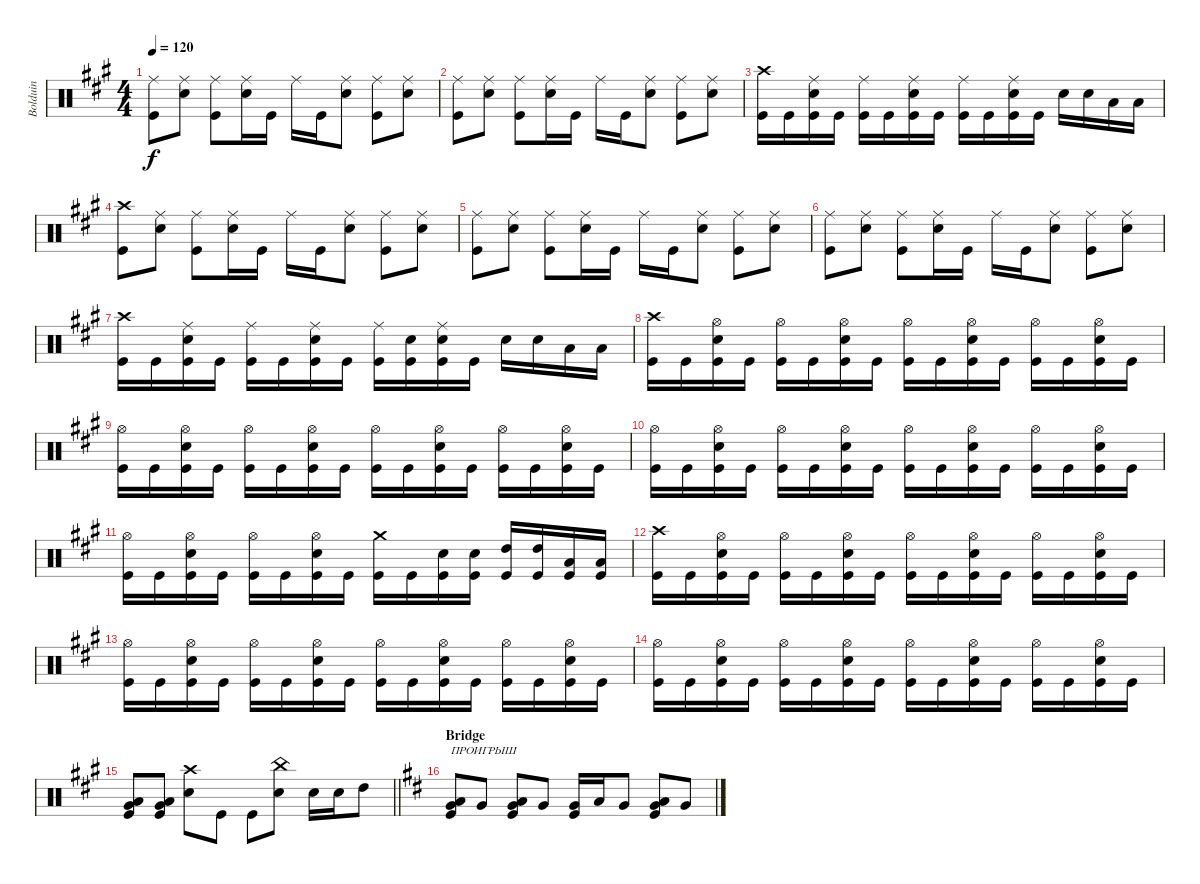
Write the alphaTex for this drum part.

\track ("Bolduin" "Bolduin") {instrument percussion}
\staff {score}
\articulation defaults
\ts (4 4)
\tempo 120
\clef neutral
\ks f#minor
("Kick (hit)" "Ride (middle)").8{dy f} ("Snare (hit) 2" "Ride (middle)").8 ("Kick (hit)" "Ride (middle)").8 ("Snare (hit) 2" "Ride (middle)").16 "Kick (hit)".16 "Ride (middle)".16 "Kick (hit)".16 ("Snare (hit) 2" "Ride (middle)").8 ("Kick (hit)" "Ride (middle)").8 ("Snare (hit) 2" "Ride (middle)").8 |
("Kick (hit)" "Ride (middle)").8 ("Snare (hit) 2" "Ride (middle)").8 ("Kick (hit)" "Ride (middle)").8 ("Snare (hit) 2" "Ride (middle)").16 "Kick (hit)".16 "Ride (middle)".16 "Kick (hit)".16 ("Snare (hit) 2" "Ride (middle)").8 ("Kick (hit)" "Ride (middle)").8 ("Snare (hit) 2" "Ride (middle)").8 |
("Kick (hit)" "Crash high (hit)").16 "Kick (hit)".16 ("Kick (hit)" "Ride (middle)" "Snare (hit) 2").16 "Kick (hit)".16 ("Kick (hit)" "Ride (middle)").16 "Kick (hit)".16 ("Kick (hit)" "Ride (middle)" "Snare (hit) 2").16 "Kick (hit)".16 ("Kick (hit)" "Ride (middle)").16 "Kick (hit)".16 ("Kick (hit)" "Ride (middle)" "Snare (hit) 2").16 "Kick (hit)".16 "Snare (hit) 2".16 "Snare (hit) 2".16 "Low Tom (hit)".16 "Low Tom (hit)".16 |
("Kick (hit)" "Crash high (hit)").8 ("Snare (hit) 2" "Ride (middle)").8 ("Kick (hit)" "Ride (middle)").8 ("Snare (hit) 2" "Ride (middle)").16 "Kick (hit)".16 "Ride (middle)".16 "Kick (hit)".16 ("Snare (hit) 2" "Ride (middle)").8 ("Kick (hit)" "Ride (middle)").8 ("Snare (hit) 2" "Ride (middle)").8 |
("Kick (hit)" "Ride (middle)").8 ("Snare (hit) 2" "Ride (middle)").8 ("Kick (hit)" "Ride (middle)").8 ("Snare (hit) 2" "Ride (middle)").16 "Kick (hit)".16 "Ride (middle)".16 "Kick (hit)".16 ("Snare (hit) 2" "Ride (middle)").8 ("Kick (hit)" "Ride (middle)").8 ("Snare (hit) 2" "Ride (middle)").8 |
("Kick (hit)" "Ride (middle)").8 ("Snare (hit) 2" "Ride (middle)").8 ("Kick (hit)" "Ride (middle)").8 ("Snare (hit) 2" "Ride (middle)").16 "Kick (hit)".16 "Ride (middle)".16 "Kick (hit)".16 ("Ride (middle)" "Snare (hit) 2").8 ("Kick (hit)" "Ride (middle)").8 ("Snare (hit) 2" "Ride (middle)").8 |
("Kick (hit)" "Crash high (hit)").16 "Kick (hit)".16 ("Kick (hit)" "Ride (middle)" "Snare (hit) 2").16 "Kick (hit)".16 ("Kick (hit)" "Ride (middle)").16 "Kick (hit)".16 ("Kick (hit)" "Ride (middle)" "Snare (hit) 2").16 "Kick (hit)".16 ("Kick (hit)" "Ride (middle)").16 ("Kick (hit)" "Snare (hit) 2").16 ("Kick (hit)" "Ride (middle)" "Snare (hit) 2").16 "Kick (hit)".16 "Snare (hit) 2".16 "Snare (hit) 2".16 "Low Tom (hit)".16 "Low Tom (hit)".16 |
("Kick (hit)" "Crash high (hit)").16 "Kick (hit)".16 ("Kick (hit)" "Snare (hit) 2" "Hi-Hat (open)").16 "Kick (hit)".16 ("Kick (hit)" "Hi-Hat (open)").16 "Kick (hit)".16 ("Kick (hit)" "Snare (hit) 2" "Hi-Hat (open)").16 "Kick (hit)".16 ("Kick (hit)" "Hi-Hat (open)").16 "Kick (hit)".16 ("Kick (hit)" "Snare (hit) 2" "Hi-Hat (open)").16 "Kick (hit)".16 ("Kick (hit)" "Hi-Hat (open)").16 "Kick (hit)".16 ("Kick (hit)" "Snare (hit) 2" "Hi-Hat (open)").16 "Kick (hit)".16 |
("Kick (hit)" "Hi-Hat (open)").16 "Kick (hit)".16 ("Kick (hit)" "Snare (hit) 2" "Hi-Hat (open)").16 "Kick (hit)".16 ("Kick (hit)" "Hi-Hat (open)").16 "Kick (hit)".16 ("Kick (hit)" "Snare (hit) 2" "Hi-Hat (open)").16 "Kick (hit)".16 ("Kick (hit)" "Hi-Hat (open)").16 "Kick (hit)".16 ("Kick (hit)" "Snare (hit) 2" "Hi-Hat (open)").16 "Kick (hit)".16 ("Kick (hit)" "Hi-Hat (open)").16 "Kick (hit)".16 ("Kick (hit)" "Snare (hit) 2" "Hi-Hat (open)").16 "Kick (hit)".16 |
("Kick (hit)" "Hi-Hat (open)").16 "Kick (hit)".16 ("Snare (hit) 2" "Kick (hit)" "Hi-Hat (open)").16 "Kick (hit)".16 ("Kick (hit)" "Hi-Hat (open)").16 "Kick (hit)".16 ("Kick (hit)" "Snare (hit) 2" "Hi-Hat (open)").16 "Kick (hit)".16 ("Kick (hit)" "Hi-Hat (open)").16 "Kick (hit)".16 ("Kick (hit)" "Snare (hit) 2" "Hi-Hat (open)").16 "Kick (hit)".16 ("Kick (hit)" "Hi-Hat (open)").16 "Kick (hit)".16 ("Kick (hit)" "Snare (hit) 2" "Hi-Hat (open)").16 "Kick (hit)".16 |
("Kick (hit)" "Hi-Hat (open)").16 "Kick (hit)".16 ("Snare (hit) 2" "Kick (hit)" "Hi-Hat (open)").16 "Kick (hit)".16 ("Kick (hit)" "Hi-Hat (open)").16 "Kick (hit)".16 ("Kick (hit)" "Snare (hit) 2" "Hi-Hat (open)").16 "Kick (hit)".16 ("Kick (hit)" "Crash medium (hit)").16 "Kick (hit)".16 ("Kick (hit)" "Snare (hit) 2").16 ("Kick (hit)" "Snare (hit) 2").16 ("Kick (hit)" "High Tom (hit)").16 ("Kick (hit)" "High Tom (hit)").16 ("Kick (hit)" "Low Tom (hit)").16 ("Kick (hit)" "Low Tom (hit)").16 |
("Kick (hit)" "Crash high (hit)").16 "Kick (hit)".16 ("Snare (hit) 2" "Kick (hit)" "Hi-Hat (open)").16 "Kick (hit)".16 ("Kick (hit)" "Hi-Hat (open)").16 "Kick (hit)".16 ("Kick (hit)" "Snare (hit) 2" "Hi-Hat (open)").16 "Kick (hit)".16 ("Kick (hit)" "Hi-Hat (open)").16 "Kick (hit)".16 ("Kick (hit)" "Snare (hit) 2" "Hi-Hat (open)").16 "Kick (hit)".16 ("Kick (hit)" "Hi-Hat (open)").16 "Kick (hit)".16 ("Kick (hit)" "Snare (hit) 2" "Hi-Hat (open)").16 "Kick (hit)".16 |
("Kick (hit)" "Hi-Hat (open)").16 "Kick (hit)".16 ("Snare (hit) 2" "Kick (hit)" "Hi-Hat (open)").16 "Kick (hit)".16 ("Kick (hit)" "Hi-Hat (open)").16 "Kick (hit)".16 ("Kick (hit)" "Snare (hit) 2" "Hi-Hat (open)").16 "Kick (hit)".16 ("Kick (hit)" "Hi-Hat (open)").16 "Kick (hit)".16 ("Kick (hit)" "Snare (hit) 2" "Hi-Hat (open)").16 "Kick (hit)".16 ("Kick (hit)" "Hi-Hat (open)").16 "Kick (hit)".16 ("Kick (hit)" "Snare (hit) 2" "Hi-Hat (open)").16 "Kick (hit)".16 |
("Kick (hit)" "Hi-Hat (open)").16 "Kick (hit)".16 ("Snare (hit) 2" "Kick (hit)" "Hi-Hat (open)").16 "Kick (hit)".16 ("Kick (hit)" "Hi-Hat (open)").16 "Kick (hit)".16 ("Kick (hit)" "Snare (hit) 2" "Hi-Hat (open)").16 "Kick (hit)".16 ("Kick (hit)" "Hi-Hat (open)").16 "Kick (hit)".16 ("Kick (hit)" "Snare (hit) 2" "Hi-Hat (open)").16 "Kick (hit)".16 ("Kick (hit)" "Hi-Hat (open)").16 "Kick (hit)".16 ("Kick (hit)" "Snare (hit) 2" "Hi-Hat (open)").16 "Kick (hit)".16 |
\barLineRight lightlight
("Kick (hit)" "Low Tom (hit)" "Very Low Tom (hit)").8 ("Kick (hit)" "Low Tom (hit)" "Very Low Tom (hit)").8 ("Crash high (hit)" "Snare (hit) 2").8 "Kick (hit)".8 "Kick (hit)".8 ("Snare (hit) 2" "China (hit)").8 "Snare (hit) 2".16 "Snare (hit) 2".16 "High Tom (hit)".8 |
\section ("" "Bridge")
\ks bminor
("Kick (hit)" "Low Tom (hit)" "Very Low Tom (hit)").8{txt "ПРОИГРЫШ"} "Very Low Tom (hit)".8 ("Very Low Tom (hit)" "Kick (hit)" "Low Tom (hit)").8 "Very Low Tom (hit)".8 ("Kick (hit)" "Very Low Tom (hit)").16 "Low Tom (hit)".16 "Very Low Tom (hit)".8 ("Kick (hit)" "Very Low Tom (hit)" "Low Tom (hit)").8 "Very Low Tom (hit)".8
